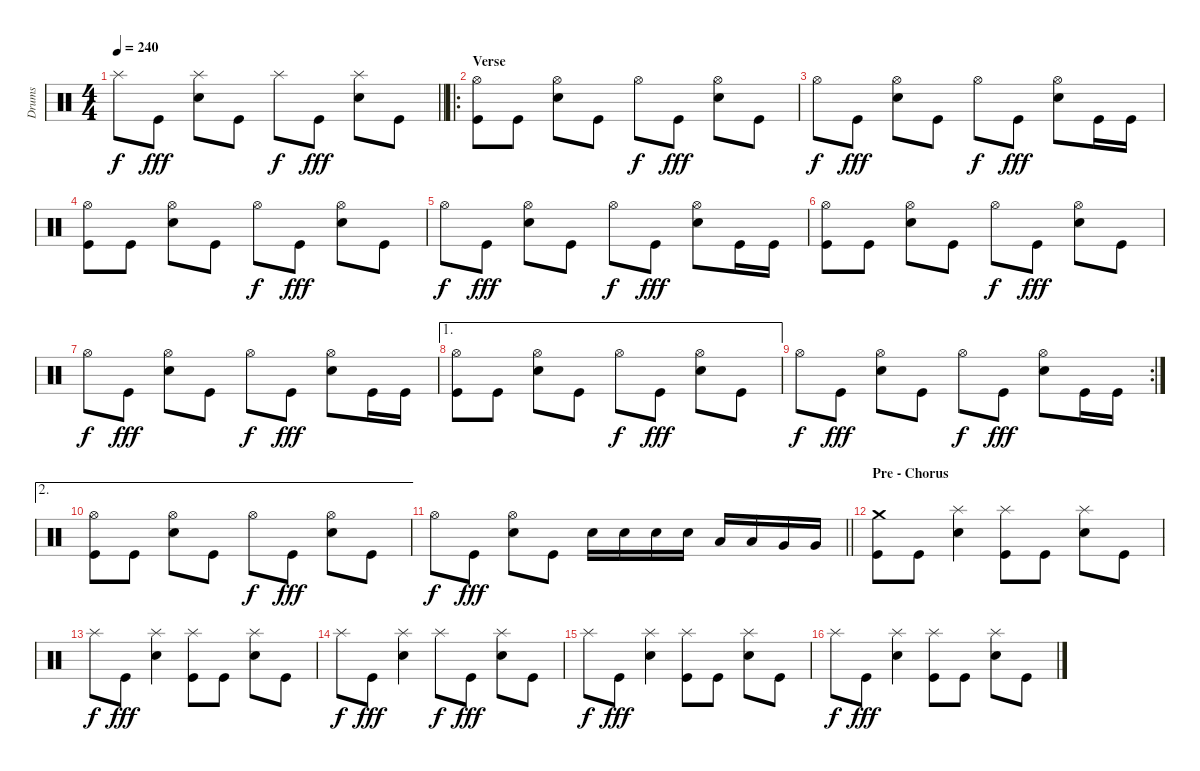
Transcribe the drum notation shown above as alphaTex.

\track ("Drums" "Drums") {instrument percussion}
\staff {score}
\articulation defaults
\ts (4 4)
\tempo 240
\clef neutral
\barLineRight lightlight
\ks c "Splash (hit)".8{dy f} "Kick (hit)".8{dy fff}
("Electric Snare (hit)" "Splash (hit)").8 "Kick (hit)".8 "Splash (hit)".8{dy f} "Kick (hit)".8{dy fff} ("Electric Snare (hit)" "Splash (hit)").8 "Kick (hit)".8 |
\ro
\section ("" "Verse")
("Kick (hit)" "Hi-Hat (open)").8 "Kick (hit)".8 ("Electric Snare (hit)" "Hi-Hat (open)").8 "Kick (hit)".8 "Hi-Hat (open)".8{dy f} "Kick (hit)".8{dy fff} ("Electric Snare (hit)" "Hi-Hat (open)").8 "Kick (hit)".8 |
"Hi-Hat (open)".8{dy f} "Kick (hit)".8{dy fff} ("Electric Snare (hit)" "Hi-Hat (open)").8 "Kick (hit)".8 "Hi-Hat (open)".8{dy f} "Kick (hit)".8{dy fff} ("Electric Snare (hit)" "Hi-Hat (open)").8 "Kick (hit)".16 "Kick (hit)".16 |
("Kick (hit)" "Hi-Hat (open)").8 "Kick (hit)".8 ("Electric Snare (hit)" "Hi-Hat (open)").8 "Kick (hit)".8 "Hi-Hat (open)".8{dy f} "Kick (hit)".8{dy fff} ("Electric Snare (hit)" "Hi-Hat (open)").8 "Kick (hit)".8 |
"Hi-Hat (open)".8{dy f} "Kick (hit)".8{dy fff} ("Electric Snare (hit)" "Hi-Hat (open)").8 "Kick (hit)".8 "Hi-Hat (open)".8{dy f} "Kick (hit)".8{dy fff} ("Electric Snare (hit)" "Hi-Hat (open)").8 "Kick (hit)".16 "Kick (hit)".16 |
("Kick (hit)" "Hi-Hat (open)").8 "Kick (hit)".8 ("Electric Snare (hit)" "Hi-Hat (open)").8 "Kick (hit)".8 "Hi-Hat (open)".8{dy f} "Kick (hit)".8{dy fff} ("Electric Snare (hit)" "Hi-Hat (open)").8 "Kick (hit)".8 |
"Hi-Hat (open)".8{dy f} "Kick (hit)".8{dy fff} ("Electric Snare (hit)" "Hi-Hat (open)").8 "Kick (hit)".8 "Hi-Hat (open)".8{dy f} "Kick (hit)".8{dy fff} ("Electric Snare (hit)" "Hi-Hat (open)").8 "Kick (hit)".16 "Kick (hit)".16 |
\ae 1
("Kick (hit)" "Hi-Hat (open)").8{volume 14 balance 0} "Kick (hit)".8 ("Electric Snare (hit)" "Hi-Hat (open)").8{balance 16} "Kick (hit)".8 "Hi-Hat (open)".8{dy f balance 0} "Kick (hit)".8{dy fff} ("Electric Snare (hit)" "Hi-Hat (open)").8{balance 16} "Kick (hit)".8 |
\rc 2 "Hi-Hat (open)".8{dy f volume 12 balance 8} "Kick (hit)".8{dy fff}
("Electric Snare (hit)" "Hi-Hat (open)").8 "Kick (hit)".8 "Hi-Hat (open)".8{dy f} "Kick (hit)".8{dy fff} ("Electric Snare (hit)" "Hi-Hat (open)").8 "Kick (hit)".16 "Kick (hit)".16 |
\ae 2
("Kick (hit)" "Hi-Hat (open)").8 "Kick (hit)".8 ("Electric Snare (hit)" "Hi-Hat (open)").8 "Kick (hit)".8 "Hi-Hat (open)".8{dy f} "Kick (hit)".8{dy fff} ("Electric Snare (hit)" "Hi-Hat (open)").8 "Kick (hit)".8 |
\barLineRight lightlight "Hi-Hat (open)".8{dy f} "Kick (hit)".8{dy fff}
("Electric Snare (hit)" "Hi-Hat (open)").8 "Kick (hit)".8 "Electric Snare (hit)".16{balance 0} "Electric Snare (hit)".16 "Electric Snare (hit)".16{balance 3} "Electric Snare (hit)".16 "Low Tom (hit)".16{balance 12} "Low Tom (hit)".16 "Very Low Tom (hit)".16{balance 15} "Very Low Tom (hit)".16 |
\section ("" "Pre - Chorus")
("Kick (hit)" "Crash medium (hit)").8{balance 8} "Kick (hit)".8 ("Electric Snare (hit)" "Splash (hit)").4 ("Kick (hit)" "Splash (hit)").8 "Kick (hit)".8 ("Electric Snare (hit)" "Splash (hit)").8 "Kick (hit)".8 |
"Splash (hit)".8{dy f} "Kick (hit)".8{dy fff} ("Electric Snare (hit)" "Splash (hit)").4 ("Kick (hit)" "Splash (hit)").8 "Kick (hit)".8 ("Electric Snare (hit)" "Splash (hit)").8 "Kick (hit)".8 |
"Splash (hit)".8{dy f} "Kick (hit)".8{dy fff} ("Electric Snare (hit)" "Splash (hit)").4 "Splash (hit)".8{dy f} "Kick (hit)".8{dy fff} ("Electric Snare (hit)" "Splash (hit)").8 "Kick (hit)".8 |
"Splash (hit)".8{dy f} "Kick (hit)".8{dy fff} ("Electric Snare (hit)" "Splash (hit)").4 ("Kick (hit)" "Splash (hit)").8 "Kick (hit)".8 ("Electric Snare (hit)" "Splash (hit)").8 "Kick (hit)".8 |
"Splash (hit)".8{dy f} "Kick (hit)".8{dy fff} ("Electric Snare (hit)" "Splash (hit)").4 ("Kick (hit)" "Splash (hit)").8 "Kick (hit)".8 ("Electric Snare (hit)" "Splash (hit)").8 "Kick (hit)".8
